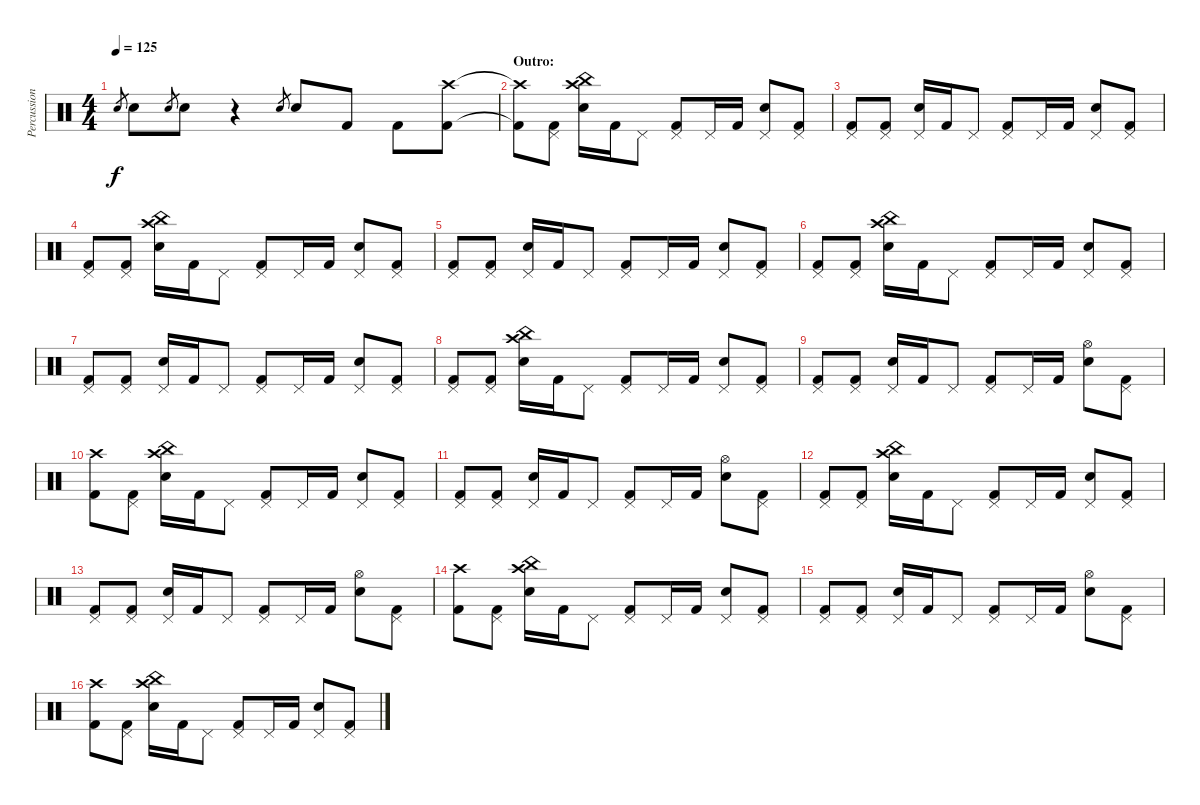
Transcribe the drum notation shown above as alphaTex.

\track ("Percussion" "Percussion") {instrument percussion}
\staff {score}
\articulation defaults
\ts (4 4)
\tempo 125
\clef neutral
\ks c "Electric Snare (hit)".8{gr dy f} "Electric Snare (hit)".8 "Electric Snare (hit)".8{gr} "Electric Snare (hit)".8
r.4 "Electric Snare (hit)".8{gr} "Electric Snare (hit)".8 "Kick (hit) 2".8 "Kick (hit) 2".8 ("Crash high (hit)" "Kick (hit) 2").8 |
\section ("" "Outro:")
("Crash high (hit)"{t} "Kick (hit) 2"{t}).8 ("Pedal Hi-Hat (hit)" "Kick (hit) 2").8 ("Crash high (hit)" "China (hit)" "Electric Snare (hit)").16 "Kick (hit) 2".16 "Pedal Hi-Hat (hit)".8 ("Pedal Hi-Hat (hit)" "Kick (hit) 2").8 "Pedal Hi-Hat (hit)".16 "Kick (hit) 2".16 ("Pedal Hi-Hat (hit)" "Electric Snare (hit)").8 ("Pedal Hi-Hat (hit)" "Kick (hit) 2").8 |
("Pedal Hi-Hat (hit)" "Kick (hit) 2").8 ("Pedal Hi-Hat (hit)" "Kick (hit) 2").8 ("Pedal Hi-Hat (hit)" "Electric Snare (hit)").16 "Kick (hit) 2".16 "Pedal Hi-Hat (hit)".8 ("Pedal Hi-Hat (hit)" "Kick (hit) 2").8 "Pedal Hi-Hat (hit)".16 "Kick (hit) 2".16 ("Pedal Hi-Hat (hit)" "Electric Snare (hit)").8 ("Pedal Hi-Hat (hit)" "Kick (hit) 2").8 |
("Pedal Hi-Hat (hit)" "Kick (hit) 2").8 ("Pedal Hi-Hat (hit)" "Kick (hit) 2").8 ("Crash high (hit)" "China (hit)" "Electric Snare (hit)").16 "Kick (hit) 2".16 "Pedal Hi-Hat (hit)".8 ("Pedal Hi-Hat (hit)" "Kick (hit) 2").8 "Pedal Hi-Hat (hit)".16 "Kick (hit) 2".16 ("Pedal Hi-Hat (hit)" "Electric Snare (hit)").8 ("Pedal Hi-Hat (hit)" "Kick (hit) 2").8 |
("Pedal Hi-Hat (hit)" "Kick (hit) 2").8 ("Pedal Hi-Hat (hit)" "Kick (hit) 2").8 ("Pedal Hi-Hat (hit)" "Electric Snare (hit)").16 "Kick (hit) 2".16 "Pedal Hi-Hat (hit)".8 ("Pedal Hi-Hat (hit)" "Kick (hit) 2").8 "Pedal Hi-Hat (hit)".16 "Kick (hit) 2".16 ("Pedal Hi-Hat (hit)" "Electric Snare (hit)").8 ("Pedal Hi-Hat (hit)" "Kick (hit) 2").8 |
("Pedal Hi-Hat (hit)" "Kick (hit) 2").8 ("Pedal Hi-Hat (hit)" "Kick (hit) 2").8 ("Crash high (hit)" "China (hit)" "Electric Snare (hit)").16 "Kick (hit) 2".16 "Pedal Hi-Hat (hit)".8 ("Pedal Hi-Hat (hit)" "Kick (hit) 2").8 "Pedal Hi-Hat (hit)".16 "Kick (hit) 2".16 ("Pedal Hi-Hat (hit)" "Electric Snare (hit)").8 ("Pedal Hi-Hat (hit)" "Kick (hit) 2").8 |
("Pedal Hi-Hat (hit)" "Kick (hit) 2").8 ("Pedal Hi-Hat (hit)" "Kick (hit) 2").8 ("Pedal Hi-Hat (hit)" "Electric Snare (hit)").16 "Kick (hit) 2".16 "Pedal Hi-Hat (hit)".8 ("Pedal Hi-Hat (hit)" "Kick (hit) 2").8 "Pedal Hi-Hat (hit)".16 "Kick (hit) 2".16 ("Pedal Hi-Hat (hit)" "Electric Snare (hit)").8 ("Pedal Hi-Hat (hit)" "Kick (hit) 2").8 |
("Pedal Hi-Hat (hit)" "Kick (hit) 2").8 ("Pedal Hi-Hat (hit)" "Kick (hit) 2").8 ("Crash high (hit)" "China (hit)" "Electric Snare (hit)").16 "Kick (hit) 2".16 "Pedal Hi-Hat (hit)".8 ("Pedal Hi-Hat (hit)" "Kick (hit) 2").8 "Pedal Hi-Hat (hit)".16 "Kick (hit) 2".16 ("Pedal Hi-Hat (hit)" "Electric Snare (hit)").8 ("Pedal Hi-Hat (hit)" "Kick (hit) 2").8 |
("Pedal Hi-Hat (hit)" "Kick (hit) 2").8 ("Pedal Hi-Hat (hit)" "Kick (hit) 2").8 ("Pedal Hi-Hat (hit)" "Electric Snare (hit)").16 "Kick (hit) 2".16 "Pedal Hi-Hat (hit)".8 ("Pedal Hi-Hat (hit)" "Kick (hit) 2").8 "Pedal Hi-Hat (hit)".16 "Kick (hit) 2".16 ("Hi-Hat (open)" "Electric Snare (hit)").8 ("Pedal Hi-Hat (hit)" "Kick (hit) 2").8 |
("Crash high (hit)" "Kick (hit) 2").8 ("Pedal Hi-Hat (hit)" "Kick (hit) 2").8 ("Crash high (hit)" "China (hit)" "Electric Snare (hit)").16 "Kick (hit) 2".16 "Pedal Hi-Hat (hit)".8 ("Pedal Hi-Hat (hit)" "Kick (hit) 2").8 "Pedal Hi-Hat (hit)".16 "Kick (hit) 2".16 ("Pedal Hi-Hat (hit)" "Electric Snare (hit)").8 ("Pedal Hi-Hat (hit)" "Kick (hit) 2").8 |
("Pedal Hi-Hat (hit)" "Kick (hit) 2").8 ("Pedal Hi-Hat (hit)" "Kick (hit) 2").8 ("Pedal Hi-Hat (hit)" "Electric Snare (hit)").16 "Kick (hit) 2".16 "Pedal Hi-Hat (hit)".8 ("Pedal Hi-Hat (hit)" "Kick (hit) 2").8 "Pedal Hi-Hat (hit)".16 "Kick (hit) 2".16 ("Hi-Hat (open)" "Electric Snare (hit)").8 ("Pedal Hi-Hat (hit)" "Kick (hit) 2").8 |
("Pedal Hi-Hat (hit)" "Kick (hit) 2").8 ("Pedal Hi-Hat (hit)" "Kick (hit) 2").8 ("Crash high (hit)" "China (hit)" "Electric Snare (hit)").16 "Kick (hit) 2".16 "Pedal Hi-Hat (hit)".8 ("Pedal Hi-Hat (hit)" "Kick (hit) 2").8 "Pedal Hi-Hat (hit)".16 "Kick (hit) 2".16 ("Pedal Hi-Hat (hit)" "Electric Snare (hit)").8 ("Pedal Hi-Hat (hit)" "Kick (hit) 2").8 |
("Pedal Hi-Hat (hit)" "Kick (hit) 2").8 ("Pedal Hi-Hat (hit)" "Kick (hit) 2").8 ("Pedal Hi-Hat (hit)" "Electric Snare (hit)").16 "Kick (hit) 2".16 "Pedal Hi-Hat (hit)".8 ("Pedal Hi-Hat (hit)" "Kick (hit) 2").8 "Pedal Hi-Hat (hit)".16 "Kick (hit) 2".16 ("Hi-Hat (open)" "Electric Snare (hit)").8 ("Pedal Hi-Hat (hit)" "Kick (hit) 2").8 |
("Crash high (hit)" "Kick (hit) 2").8 ("Pedal Hi-Hat (hit)" "Kick (hit) 2").8 ("Crash high (hit)" "China (hit)" "Electric Snare (hit)").16 "Kick (hit) 2".16 "Pedal Hi-Hat (hit)".8 ("Pedal Hi-Hat (hit)" "Kick (hit) 2").8 "Pedal Hi-Hat (hit)".16 "Kick (hit) 2".16 ("Pedal Hi-Hat (hit)" "Electric Snare (hit)").8 ("Pedal Hi-Hat (hit)" "Kick (hit) 2").8 |
("Pedal Hi-Hat (hit)" "Kick (hit) 2").8 ("Pedal Hi-Hat (hit)" "Kick (hit) 2").8 ("Pedal Hi-Hat (hit)" "Electric Snare (hit)").16 "Kick (hit) 2".16 "Pedal Hi-Hat (hit)".8 ("Pedal Hi-Hat (hit)" "Kick (hit) 2").8 "Pedal Hi-Hat (hit)".16 "Kick (hit) 2".16 ("Hi-Hat (open)" "Electric Snare (hit)").8 ("Pedal Hi-Hat (hit)" "Kick (hit) 2").8 |
("Crash high (hit)" "Kick (hit) 2").8 ("Pedal Hi-Hat (hit)" "Kick (hit) 2").8 ("China (hit)" "Crash high (hit)" "Electric Snare (hit)").16 "Kick (hit) 2".16 "Pedal Hi-Hat (hit)".8 ("Pedal Hi-Hat (hit)" "Kick (hit) 2").8 "Pedal Hi-Hat (hit)".16 "Kick (hit) 2".16 ("Pedal Hi-Hat (hit)" "Electric Snare (hit)").8 ("Pedal Hi-Hat (hit)" "Kick (hit) 2").8
